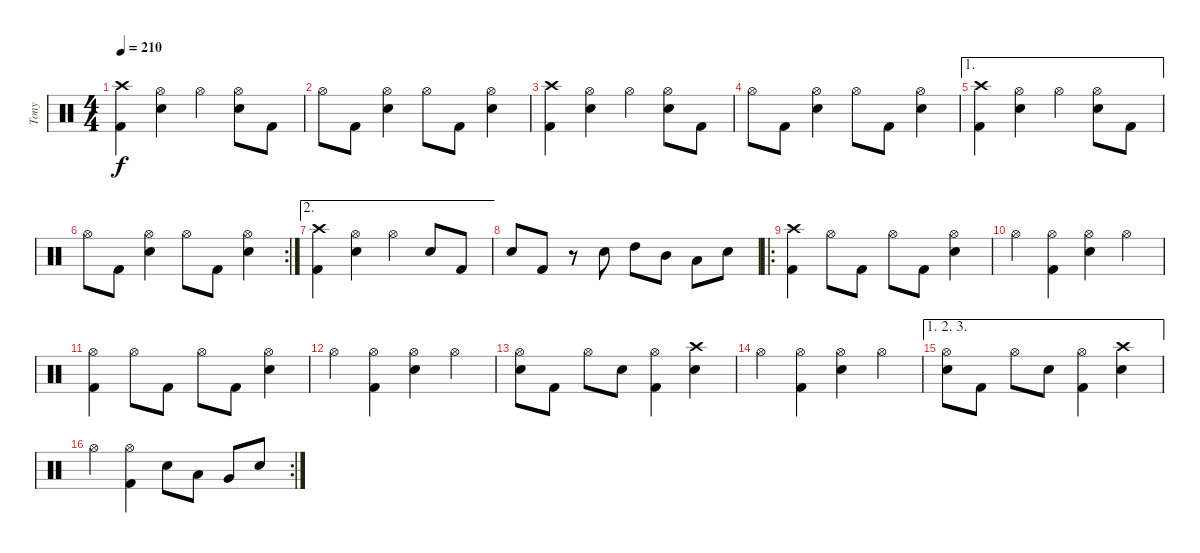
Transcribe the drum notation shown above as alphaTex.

\track ("Tony" "Tony") {instrument percussion}
\staff {score}
\articulation defaults
\ts (4 4)
\tempo 210
\clef neutral
\ks c
("Kick (hit) 2" "Crash high (hit)").4{dy f} ("Snare (hit) 2" "Hi-Hat (open)").4 "Hi-Hat (open)".4 ("Snare (hit) 2" "Hi-Hat (open)").8 "Kick (hit) 2".8 |
"Hi-Hat (open)".8 "Kick (hit) 2".8 ("Snare (hit) 2" "Hi-Hat (open)").4 "Hi-Hat (open)".8 "Kick (hit) 2".8 ("Snare (hit) 2" "Hi-Hat (open)").4 |
("Kick (hit) 2" "Crash high (hit)").4 ("Snare (hit) 2" "Hi-Hat (open)").4 "Hi-Hat (open)".4 ("Snare (hit) 2" "Hi-Hat (open)").8 "Kick (hit) 2".8 |
"Hi-Hat (open)".8 "Kick (hit) 2".8 ("Snare (hit) 2" "Hi-Hat (open)").4 "Hi-Hat (open)".8 "Kick (hit) 2".8 ("Snare (hit) 2" "Hi-Hat (open)").4 |
\ae 1
("Kick (hit) 2" "Crash high (hit)").4 ("Snare (hit) 2" "Hi-Hat (open)").4 "Hi-Hat (open)".4 ("Snare (hit) 2" "Hi-Hat (open)").8 "Kick (hit) 2".8 |
\rc 2 "Hi-Hat (open)".8 "Kick (hit) 2".8
("Snare (hit) 2" "Hi-Hat (open)").4 "Hi-Hat (open)".8 "Kick (hit) 2".8 ("Snare (hit) 2" "Hi-Hat (open)").4 |
\ae 2
("Kick (hit) 2" "Crash high (hit)").4 ("Snare (hit) 2" "Hi-Hat (open)").4 "Hi-Hat (open)".4 "Snare (hit) 2".8 "Kick (hit) 2".8 |
"Snare (hit) 2".8 "Kick (hit) 2".8 r.8 "Snare (hit) 2".8 "High Tom (hit)".8 "Mid Tom (hit)".8 "Low Tom (hit)".8 "Snare (hit) 2".8 |
\ro
("Kick (hit) 2" "Crash high (hit)").4 "Hi-Hat (open)".8 "Kick (hit) 2".8 "Hi-Hat (open)".8 "Kick (hit) 2".8 ("Snare (hit) 2" "Hi-Hat (open)").4 |
"Hi-Hat (open)".4 ("Kick (hit) 2" "Hi-Hat (open)").4 ("Snare (hit) 2" "Hi-Hat (open)").4 "Hi-Hat (open)".4 |
("Kick (hit) 2" "Hi-Hat (open)").4 "Hi-Hat (open)".8 "Kick (hit) 2".8 "Hi-Hat (open)".8 "Kick (hit) 2".8 ("Snare (hit) 2" "Hi-Hat (open)").4 |
"Hi-Hat (open)".4 ("Kick (hit) 2" "Hi-Hat (open)").4 ("Snare (hit) 2" "Hi-Hat (open)").4 "Hi-Hat (open)".4 |
("Snare (hit) 2" "Hi-Hat (open)").8 "Kick (hit) 2".8 "Hi-Hat (open)".8 "Snare (hit) 2".8 ("Kick (hit) 2" "Hi-Hat (open)").4 ("Crash high (hit)" "Snare (hit) 2").4 |
"Hi-Hat (open)".4 ("Kick (hit) 2" "Hi-Hat (open)").4 ("Snare (hit) 2" "Hi-Hat (open)").4 "Hi-Hat (open)".4 |
\ae (1 2 3)
("Snare (hit) 2" "Hi-Hat (open)").8 "Kick (hit) 2".8 "Hi-Hat (open)".8 "Snare (hit) 2".8 ("Kick (hit) 2" "Hi-Hat (open)").4 ("Crash high (hit)" "Snare (hit) 2").4 |
\rc 2 "Hi-Hat (open)".4
("Kick (hit) 2" "Hi-Hat (open)").4 "Snare (hit) 2".8 "Low Tom (hit)".8 "Very Low Tom (hit)".8 "Snare (hit) 2".8
